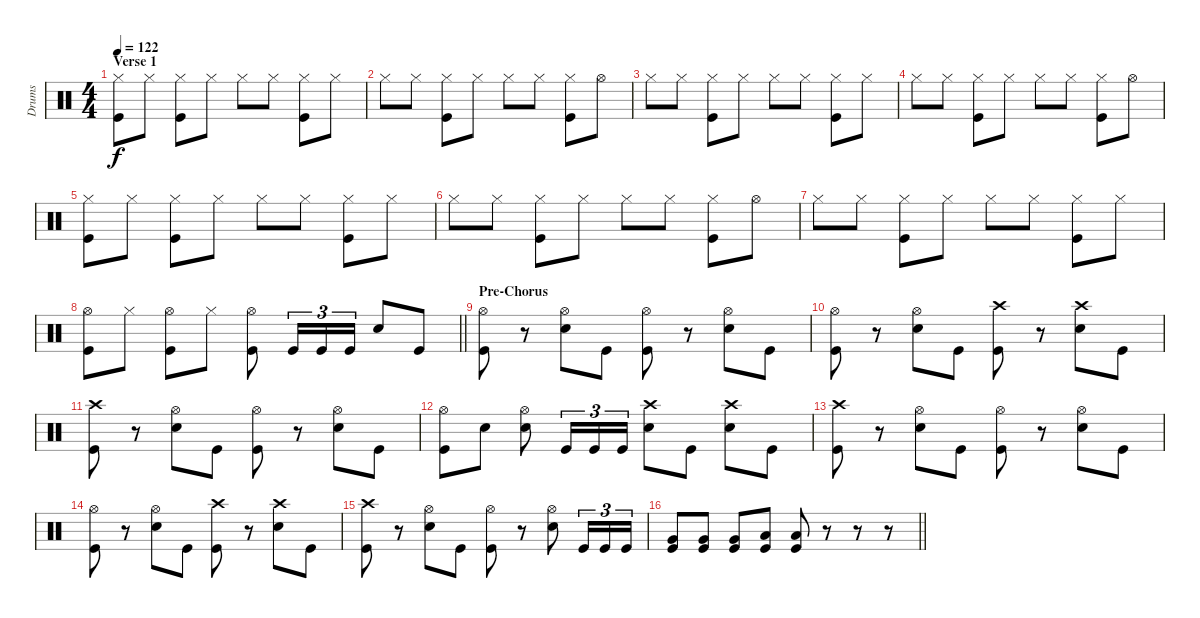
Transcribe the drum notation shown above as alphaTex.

\track ("Drums" "Drums") {instrument percussion}
\staff {score}
\articulation defaults
\ts (4 4)
\section ("" "Verse 1")
\tempo 122
\clef neutral
\ks c
("Kick (hit)" "Hi-Hat (closed)").8{dy f} "Hi-Hat (closed)".8 ("Kick (hit)" "Hi-Hat (closed)").8 "Hi-Hat (closed)".8 "Hi-Hat (closed)".8 "Hi-Hat (closed)".8 ("Kick (hit)" "Hi-Hat (closed)").8 "Hi-Hat (closed)".8 |
"Hi-Hat (closed)".8 "Hi-Hat (closed)".8 ("Kick (hit)" "Hi-Hat (closed)").8 "Hi-Hat (closed)".8 "Hi-Hat (closed)".8 "Hi-Hat (closed)".8 ("Kick (hit)" "Hi-Hat (closed)").8 "Hi-Hat (open)".8 |
"Hi-Hat (closed)".8 "Hi-Hat (closed)".8 ("Kick (hit)" "Hi-Hat (closed)").8 "Hi-Hat (closed)".8 "Hi-Hat (closed)".8 "Hi-Hat (closed)".8 ("Kick (hit)" "Hi-Hat (closed)").8 "Hi-Hat (closed)".8 |
"Hi-Hat (closed)".8 "Hi-Hat (closed)".8 ("Kick (hit)" "Hi-Hat (closed)").8 "Hi-Hat (closed)".8 "Hi-Hat (closed)".8 "Hi-Hat (closed)".8 ("Kick (hit)" "Hi-Hat (closed)").8 "Hi-Hat (open)".8 |
("Kick (hit)" "Hi-Hat (closed)").8 "Hi-Hat (closed)".8 ("Kick (hit)" "Hi-Hat (closed)").8 "Hi-Hat (closed)".8 "Hi-Hat (closed)".8 "Hi-Hat (closed)".8 ("Kick (hit)" "Hi-Hat (closed)").8 "Hi-Hat (closed)".8 |
"Hi-Hat (closed)".8 "Hi-Hat (closed)".8 ("Kick (hit)" "Hi-Hat (closed)").8 "Hi-Hat (closed)".8 "Hi-Hat (closed)".8 "Hi-Hat (closed)".8 ("Kick (hit)" "Hi-Hat (closed)").8 "Hi-Hat (open)".8 |
"Hi-Hat (closed)".8 "Hi-Hat (closed)".8 ("Kick (hit)" "Hi-Hat (closed)").8 "Hi-Hat (closed)".8 "Hi-Hat (closed)".8 "Hi-Hat (closed)".8 ("Kick (hit)" "Hi-Hat (closed)").8 "Hi-Hat (closed)".8 |
\barLineRight lightlight
("Kick (hit)" "Hi-Hat (open)").8 "Hi-Hat (closed)".8 ("Kick (hit)" "Hi-Hat (open)").8 "Hi-Hat (closed)".8 ("Hi-Hat (open)" "Kick (hit)").8 "Kick (hit)".16{tu (3 2)} "Kick (hit)".16{tu (3 2)} "Kick (hit)".16{tu (3 2)} "Snare (hit) 2".8 "Kick (hit)".8 |
\section ("" "Pre-Chorus")
("Hi-Hat (open)" "Kick (hit)").8 r.8 ("Hi-Hat (open)" "Snare (hit) 2").8 "Kick (hit)".8 ("Kick (hit)" "Hi-Hat (open)").8 r.8 ("Snare (hit) 2" "Hi-Hat (open)").8 "Kick (hit)".8 |
("Hi-Hat (open)" "Kick (hit)").8 r.8 ("Hi-Hat (open)" "Snare (hit) 2").8 "Kick (hit)".8 ("Crash high (hit)" "Kick (hit)").8 r.8 ("Crash high (hit)" "Snare (hit) 2").8 "Kick (hit)".8 |
("Crash high (hit)" "Kick (hit)").8 r.8 ("Hi-Hat (open)" "Snare (hit) 2").8 "Kick (hit)".8 ("Kick (hit)" "Hi-Hat (open)").8 r.8 ("Snare (hit) 2" "Hi-Hat (open)").8 "Kick (hit)".8 |
("Hi-Hat (open)" "Kick (hit)").8 "Snare (hit) 2".8 ("Hi-Hat (open)" "Snare (hit) 2").8 "Kick (hit)".16{tu (3 2)} "Kick (hit)".16{tu (3 2)} "Kick (hit)".16{tu (3 2)} ("Crash high (hit)" "Snare (hit) 2").8 "Kick (hit)".8 ("Snare (hit) 2" "Crash high (hit)").8 "Kick (hit)".8 |
("Crash high (hit)" "Kick (hit)").8 r.8 ("Hi-Hat (open)" "Snare (hit) 2").8 "Kick (hit)".8 ("Kick (hit)" "Hi-Hat (open)").8 r.8 ("Snare (hit) 2" "Hi-Hat (open)").8 "Kick (hit)".8 |
("Hi-Hat (open)" "Kick (hit)").8 r.8 ("Hi-Hat (open)" "Snare (hit) 2").8 "Kick (hit)".8 ("Crash high (hit)" "Kick (hit)").8 r.8 ("Crash high (hit)" "Snare (hit) 2").8 "Kick (hit)".8 |
("Crash high (hit)" "Kick (hit)").8 r.8 ("Hi-Hat (open)" "Snare (hit) 2").8 "Kick (hit)".8 ("Kick (hit)" "Hi-Hat (open)").8 r.8 ("Snare (hit) 2" "Hi-Hat (open)").8 "Kick (hit)".16{tu (3 2)} "Kick (hit)".16{tu (3 2)} "Kick (hit)".16{tu (3 2)} |
\barLineRight lightlight
("Very Low Tom (hit)" "Kick (hit)").8 ("Very Low Tom (hit)" "Kick (hit)").8 ("Very Low Tom (hit)" "Kick (hit)").8 ("Low Floor Tom (hit)" "Kick (hit)").8 ("Low Floor Tom (hit)" "Kick (hit)").8 r.8 r.8 r.8
